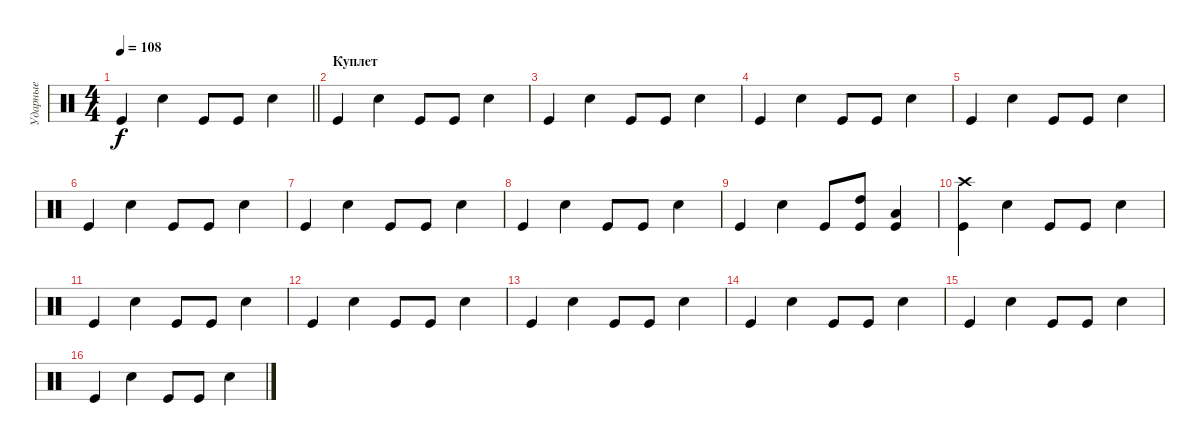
\track ("Ударные" "Ударные") {instrument percussion}
\staff {score}
\articulation defaults
\ts (4 4)
\tempo 108
\clef neutral
\barLineRight lightlight
\ks c "Kick (hit)".4{dy f} "Snare (hit) 2".4 "Kick (hit)".8 "Kick (hit)".8 "Snare (hit) 2".4
|
\section ("" "Куплет")
"Kick (hit)".4 "Snare (hit) 2".4 "Kick (hit)".8 "Kick (hit)".8 "Snare (hit) 2".4 |
"Kick (hit)".4 "Snare (hit) 2".4 "Kick (hit)".8 "Kick (hit)".8 "Snare (hit) 2".4 |
"Kick (hit)".4 "Snare (hit) 2".4 "Kick (hit)".8 "Kick (hit)".8 "Snare (hit) 2".4 |
"Kick (hit)".4 "Snare (hit) 2".4 "Kick (hit)".8 "Kick (hit)".8 "Snare (hit) 2".4 |
"Kick (hit)".4 "Snare (hit) 2".4 "Kick (hit)".8 "Kick (hit)".8 "Snare (hit) 2".4 |
"Kick (hit)".4 "Snare (hit) 2".4 "Kick (hit)".8 "Kick (hit)".8 "Snare (hit) 2".4 |
"Kick (hit)".4 "Snare (hit) 2".4 "Kick (hit)".8 "Kick (hit)".8 "Snare (hit) 2".4 |
"Kick (hit)".4 "Snare (hit) 2".4 "Kick (hit)".8 ("Kick (hit)" "High Tom (hit)").8 ("Kick (hit)" "Low Tom (hit)").4 |
("Kick (hit)" "Crash high (hit)").4 "Snare (hit) 2".4 "Kick (hit)".8 "Kick (hit)".8 "Snare (hit) 2".4 |
"Kick (hit)".4 "Snare (hit) 2".4 "Kick (hit)".8 "Kick (hit)".8 "Snare (hit) 2".4 |
"Kick (hit)".4 "Snare (hit) 2".4 "Kick (hit)".8 "Kick (hit)".8 "Snare (hit) 2".4 |
"Kick (hit)".4 "Snare (hit) 2".4 "Kick (hit)".8 "Kick (hit)".8 "Snare (hit) 2".4 |
"Kick (hit)".4 "Snare (hit) 2".4 "Kick (hit)".8 "Kick (hit)".8 "Snare (hit) 2".4 |
"Kick (hit)".4 "Snare (hit) 2".4 "Kick (hit)".8 "Kick (hit)".8 "Snare (hit) 2".4 |
"Kick (hit)".4 "Snare (hit) 2".4 "Kick (hit)".8 "Kick (hit)".8 "Snare (hit) 2".4
